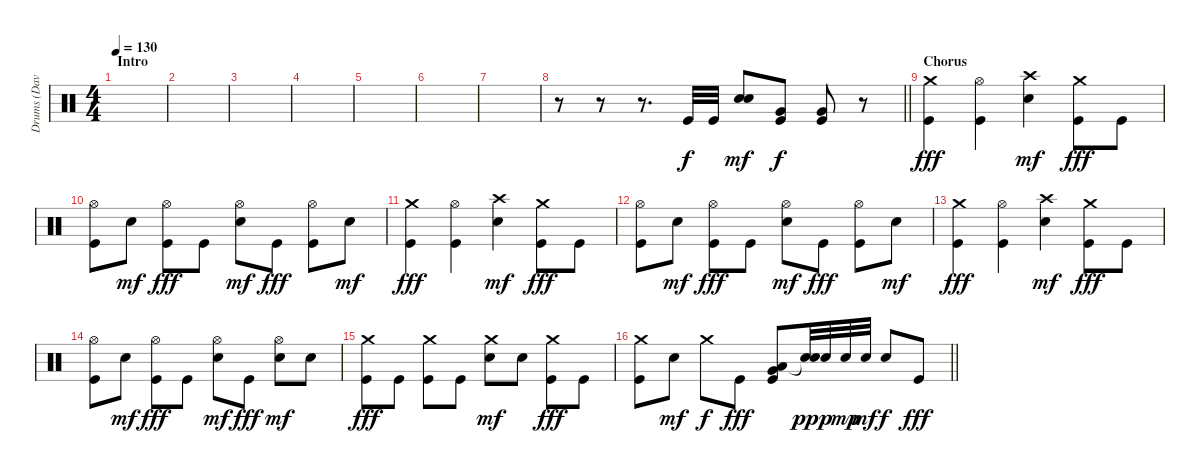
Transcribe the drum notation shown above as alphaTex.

\track ("Drums (Dave Chavarri)" "Drums (Dav") {instrument percussion}
\staff {score}
\articulation defaults
\ts (4 4)
\section ("" "Intro")
\tempo 130
\clef neutral
\ks c
|
|
|
|
|
|
|
\barLineRight lightlight
r.8 r.8 r.8{d} "Kick (hit)".32 "Kick (hit)".32 ("Electric Snare (hit)" "Electric Snare (hit)").8{bd 120 dy mf} ("Very Low Tom (hit)" "Kick (hit)").8{dy f} ("Very Low Tom (hit)" "Kick (hit)").8 r.8 |
\section ("" "Chorus")
("Crash medium (hit)" "Kick (hit)").4{dy fff} ("Hi-Hat (open)" "Kick (hit)").4 ("Crash high (hit)" "Electric Snare (hit)").4{dy mf} ("Crash medium (hit)" "Kick (hit)").8{dy fff} "Kick (hit)".8 |
("Hi-Hat (open)" "Kick (hit)").8 "Electric Snare (hit)".8{dy mf} ("Hi-Hat (open)" "Kick (hit)").8{dy fff} "Kick (hit)".8 ("Hi-Hat (open)" "Electric Snare (hit)").8{dy mf} "Kick (hit)".8{dy fff} ("Hi-Hat (open)" "Kick (hit)").8 "Electric Snare (hit)".8{dy mf} |
("Crash medium (hit)" "Kick (hit)").4{dy fff} ("Hi-Hat (open)" "Kick (hit)").4 ("Crash high (hit)" "Electric Snare (hit)").4{dy mf} ("Crash medium (hit)" "Kick (hit)").8{dy fff} "Kick (hit)".8 |
("Hi-Hat (open)" "Kick (hit)").8 "Electric Snare (hit)".8{dy mf} ("Hi-Hat (open)" "Kick (hit)").8{dy fff} "Kick (hit)".8 ("Hi-Hat (open)" "Electric Snare (hit)").8{dy mf} "Kick (hit)".8{dy fff} ("Hi-Hat (open)" "Kick (hit)").8 "Electric Snare (hit)".8{dy mf} |
("Crash medium (hit)" "Kick (hit)").4{dy fff} ("Hi-Hat (open)" "Kick (hit)").4 ("Crash high (hit)" "Electric Snare (hit)").4{dy mf} ("Crash medium (hit)" "Kick (hit)").8{dy fff} "Kick (hit)".8 |
("Hi-Hat (open)" "Kick (hit)").8 "Electric Snare (hit)".8{dy mf} ("Hi-Hat (open)" "Kick (hit)").8{dy fff} "Kick (hit)".8 ("Hi-Hat (open)" "Electric Snare (hit)").8{dy mf} "Kick (hit)".8{dy fff} ("Hi-Hat (open)" "Electric Snare (hit)").8{dy mf} "Electric Snare (hit)".8 |
("Crash medium (hit)" "Kick (hit)").8{dy fff} "Kick (hit)".8 ("Crash medium (hit)" "Kick (hit)").8 "Kick (hit)".8 ("Crash medium (hit)" "Electric Snare (hit)").8{dy mf} "Electric Snare (hit)".8 ("Crash medium (hit)" "Kick (hit)").8{dy fff} "Kick (hit)".8 |
\barLineRight lightlight
("Crash medium (hit)" "Kick (hit)").8 "Electric Snare (hit)".8{dy mf} "Crash medium (hit)".8{dy f} "Kick (hit)".8{dy fff} ("Low Tom (hit)" "Very Low Tom (hit)" "Kick (hit)").8 ("Snare (hit)"{t} "Electric Snare (hit)").32{dy pp} "Electric Snare (hit)".32{dy p} "Electric Snare (hit)".32{dy mp} "Electric Snare (hit)".32{dy mf} "Electric Snare (hit)".8{dy f} "Kick (hit)".8{dy fff}
